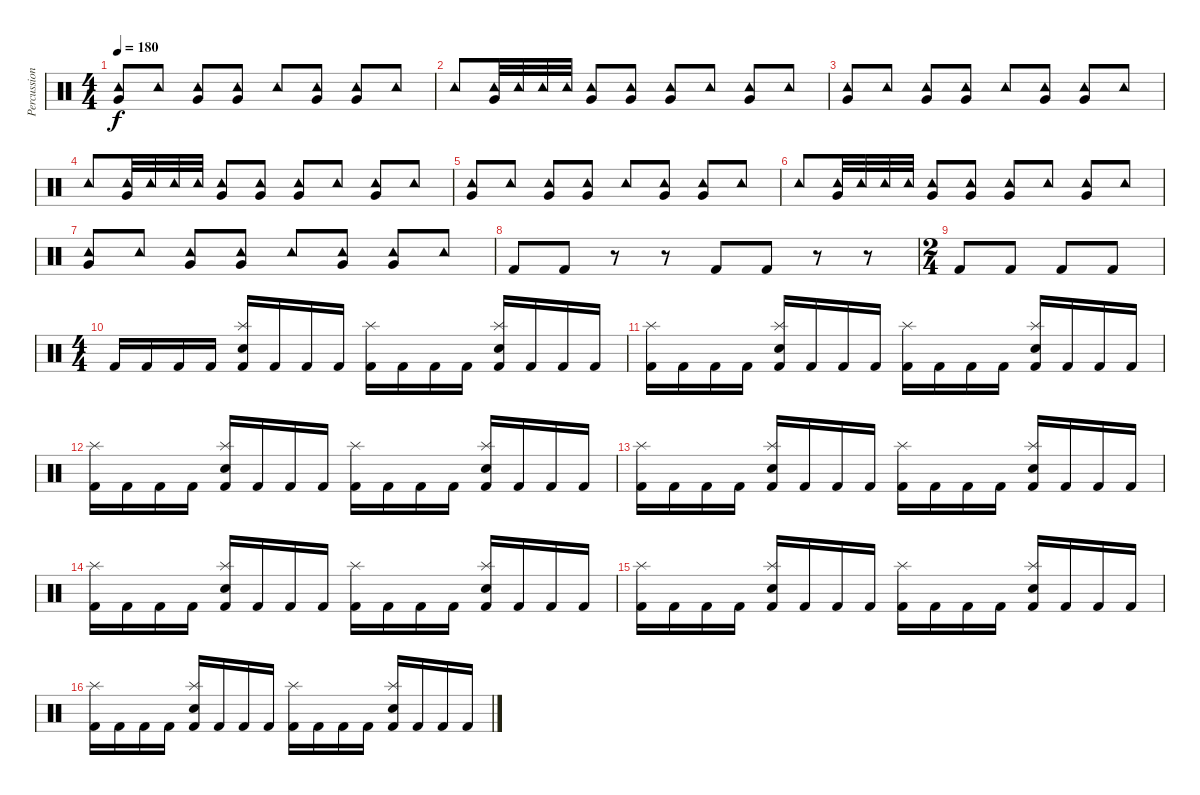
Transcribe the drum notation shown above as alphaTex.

\track ("Percussion" "Percussion") {instrument percussion}
\staff {score}
\articulation defaults
\ts (4 4)
\tempo 180
\clef neutral
\ks c
("Very Low Tom (hit)" "Tambourine (hit)").8{dy f} "Tambourine (hit)".8 ("Very Low Tom (hit)" "Tambourine (hit)").8 ("Very Low Tom (hit)" "Tambourine (hit)").8 "Tambourine (hit)".8 ("Very Low Tom (hit)" "Tambourine (hit)").8 ("Very Low Tom (hit)" "Tambourine (hit)").8 "Tambourine (hit)".8 |
"Tambourine (hit)".8 ("Very Low Tom (hit)" "Tambourine (hit)").32 "Tambourine (hit)".32 "Tambourine (hit)".32 "Tambourine (hit)".32 ("Very Low Tom (hit)" "Tambourine (hit)").8 ("Very Low Tom (hit)" "Tambourine (hit)").8 ("Very Low Tom (hit)" "Tambourine (hit)").8 "Tambourine (hit)".8 ("Very Low Tom (hit)" "Tambourine (hit)").8 "Tambourine (hit)".8 |
("Very Low Tom (hit)" "Tambourine (hit)").8 "Tambourine (hit)".8 ("Very Low Tom (hit)" "Tambourine (hit)").8 ("Very Low Tom (hit)" "Tambourine (hit)").8 "Tambourine (hit)".8 ("Very Low Tom (hit)" "Tambourine (hit)").8 ("Very Low Tom (hit)" "Tambourine (hit)").8 "Tambourine (hit)".8 |
"Tambourine (hit)".8 ("Very Low Tom (hit)" "Tambourine (hit)").32 "Tambourine (hit)".32 "Tambourine (hit)".32 "Tambourine (hit)".32 ("Very Low Tom (hit)" "Tambourine (hit)").8 ("Very Low Tom (hit)" "Tambourine (hit)").8 ("Very Low Tom (hit)" "Tambourine (hit)").8 "Tambourine (hit)".8 ("Very Low Tom (hit)" "Tambourine (hit)").8 "Tambourine (hit)".8 |
("Very Low Tom (hit)" "Tambourine (hit)").8 "Tambourine (hit)".8 ("Very Low Tom (hit)" "Tambourine (hit)").8 ("Very Low Tom (hit)" "Tambourine (hit)").8 "Tambourine (hit)".8 ("Very Low Tom (hit)" "Tambourine (hit)").8 ("Very Low Tom (hit)" "Tambourine (hit)").8 "Tambourine (hit)".8 |
"Tambourine (hit)".8 ("Very Low Tom (hit)" "Tambourine (hit)").32 "Tambourine (hit)".32 "Tambourine (hit)".32 "Tambourine (hit)".32 ("Very Low Tom (hit)" "Tambourine (hit)").8 ("Very Low Tom (hit)" "Tambourine (hit)").8 ("Very Low Tom (hit)" "Tambourine (hit)").8 "Tambourine (hit)".8 ("Very Low Tom (hit)" "Tambourine (hit)").8 "Tambourine (hit)".8 |
("Very Low Tom (hit)" "Tambourine (hit)").8 "Tambourine (hit)".8 ("Very Low Tom (hit)" "Tambourine (hit)").8 ("Very Low Tom (hit)" "Tambourine (hit)").8 "Tambourine (hit)".8 ("Very Low Tom (hit)" "Tambourine (hit)").8 ("Very Low Tom (hit)" "Tambourine (hit)").8 "Tambourine (hit)".8 |
"Kick (hit) 2".8 "Kick (hit) 2".8 r.8 r.8 "Kick (hit) 2".8 "Kick (hit) 2".8 r.8 r.8 |
\ts (2 4)
"Kick (hit) 2".8 "Kick (hit) 2".8 "Kick (hit) 2".8 "Kick (hit) 2".8 |
\ts (4 4)
"Kick (hit) 2".16 "Kick (hit) 2".16 "Kick (hit) 2".16 "Kick (hit) 2".16 ("Splash (hit)" "Snare (hit) 2" "Kick (hit) 2").16 "Kick (hit) 2".16 "Kick (hit) 2".16 "Kick (hit) 2".16 ("Splash (hit)" "Kick (hit) 2").16 "Kick (hit) 2".16 "Kick (hit) 2".16 "Kick (hit) 2".16 ("Splash (hit)" "Snare (hit) 2" "Kick (hit) 2").16 "Kick (hit) 2".16 "Kick (hit) 2".16 "Kick (hit) 2".16 |
("Splash (hit)" "Kick (hit) 2").16 "Kick (hit) 2".16 "Kick (hit) 2".16 "Kick (hit) 2".16 ("Splash (hit)" "Snare (hit) 2" "Kick (hit) 2").16 "Kick (hit) 2".16 "Kick (hit) 2".16 "Kick (hit) 2".16 ("Splash (hit)" "Kick (hit) 2").16 "Kick (hit) 2".16 "Kick (hit) 2".16 "Kick (hit) 2".16 ("Splash (hit)" "Snare (hit) 2" "Kick (hit) 2").16 "Kick (hit) 2".16 "Kick (hit) 2".16 "Kick (hit) 2".16 |
("Splash (hit)" "Kick (hit) 2").16 "Kick (hit) 2".16 "Kick (hit) 2".16 "Kick (hit) 2".16 ("Splash (hit)" "Snare (hit) 2" "Kick (hit) 2").16 "Kick (hit) 2".16 "Kick (hit) 2".16 "Kick (hit) 2".16 ("Splash (hit)" "Kick (hit) 2").16 "Kick (hit) 2".16 "Kick (hit) 2".16 "Kick (hit) 2".16 ("Splash (hit)" "Snare (hit) 2" "Kick (hit) 2").16 "Kick (hit) 2".16 "Kick (hit) 2".16 "Kick (hit) 2".16 |
("Splash (hit)" "Kick (hit) 2").16 "Kick (hit) 2".16 "Kick (hit) 2".16 "Kick (hit) 2".16 ("Splash (hit)" "Snare (hit) 2" "Kick (hit) 2").16 "Kick (hit) 2".16 "Kick (hit) 2".16 "Kick (hit) 2".16 ("Splash (hit)" "Kick (hit) 2").16 "Kick (hit) 2".16 "Kick (hit) 2".16 "Kick (hit) 2".16 ("Splash (hit)" "Snare (hit) 2" "Kick (hit) 2").16 "Kick (hit) 2".16 "Kick (hit) 2".16 "Kick (hit) 2".16 |
("Splash (hit)" "Kick (hit) 2").16 "Kick (hit) 2".16 "Kick (hit) 2".16 "Kick (hit) 2".16 ("Splash (hit)" "Snare (hit) 2" "Kick (hit) 2").16 "Kick (hit) 2".16 "Kick (hit) 2".16 "Kick (hit) 2".16 ("Splash (hit)" "Kick (hit) 2").16 "Kick (hit) 2".16 "Kick (hit) 2".16 "Kick (hit) 2".16 ("Splash (hit)" "Snare (hit) 2" "Kick (hit) 2").16 "Kick (hit) 2".16 "Kick (hit) 2".16 "Kick (hit) 2".16 |
("Splash (hit)" "Kick (hit) 2").16 "Kick (hit) 2".16 "Kick (hit) 2".16 "Kick (hit) 2".16 ("Splash (hit)" "Snare (hit) 2" "Kick (hit) 2").16 "Kick (hit) 2".16 "Kick (hit) 2".16 "Kick (hit) 2".16 ("Splash (hit)" "Kick (hit) 2").16 "Kick (hit) 2".16 "Kick (hit) 2".16 "Kick (hit) 2".16 ("Splash (hit)" "Snare (hit) 2" "Kick (hit) 2").16 "Kick (hit) 2".16 "Kick (hit) 2".16 "Kick (hit) 2".16 |
("Splash (hit)" "Kick (hit) 2").16 "Kick (hit) 2".16 "Kick (hit) 2".16 "Kick (hit) 2".16 ("Splash (hit)" "Snare (hit) 2" "Kick (hit) 2").16 "Kick (hit) 2".16 "Kick (hit) 2".16 "Kick (hit) 2".16 ("Splash (hit)" "Kick (hit) 2").16 "Kick (hit) 2".16 "Kick (hit) 2".16 "Kick (hit) 2".16 ("Splash (hit)" "Snare (hit) 2" "Kick (hit) 2").16 "Kick (hit) 2".16 "Kick (hit) 2".16 "Kick (hit) 2".16
